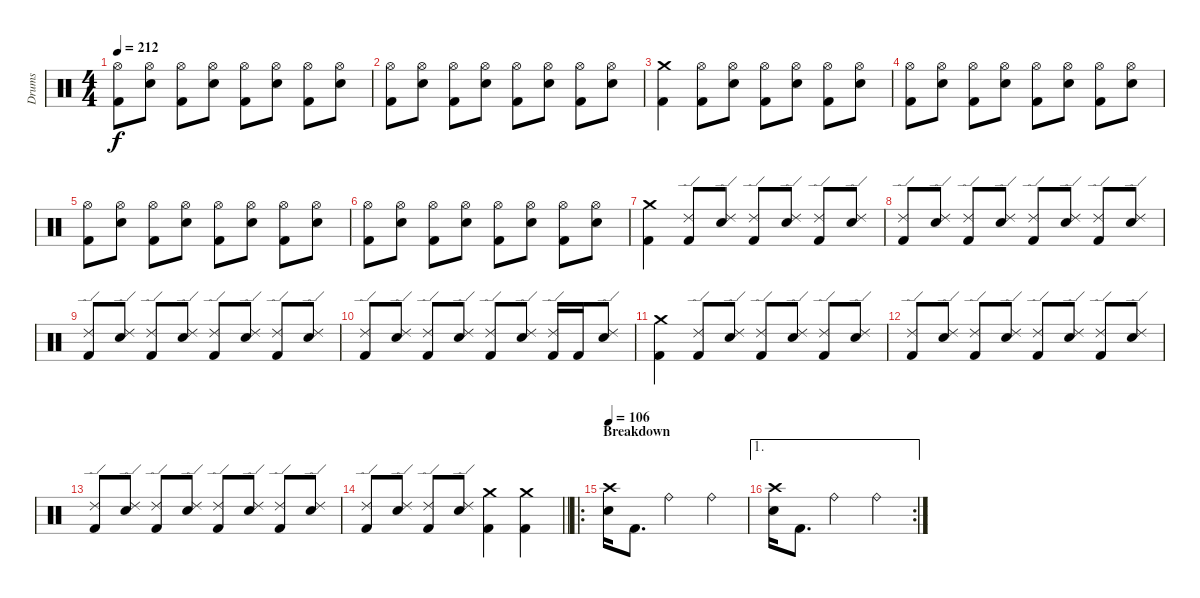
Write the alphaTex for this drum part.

\track ("Drums" "Drums") {instrument percussion}
\staff {score}
\articulation defaults
\ts (4 4)
\tempo 212
\clef neutral
\ks c
("Hi-Hat (open)" "Kick (hit) 2").8{dy f} ("Hi-Hat (open)" "Electric Snare (hit)").8 ("Hi-Hat (open)" "Kick (hit) 2").8 ("Hi-Hat (open)" "Electric Snare (hit)").8 ("Hi-Hat (open)" "Kick (hit) 2").8 ("Hi-Hat (open)" "Electric Snare (hit)").8 ("Hi-Hat (open)" "Kick (hit) 2").8 ("Hi-Hat (open)" "Electric Snare (hit)").8 |
("Hi-Hat (open)" "Kick (hit) 2").8 ("Hi-Hat (open)" "Electric Snare (hit)").8 ("Hi-Hat (open)" "Kick (hit) 2").8 ("Hi-Hat (open)" "Electric Snare (hit)").8 ("Hi-Hat (open)" "Kick (hit) 2").8 ("Hi-Hat (open)" "Electric Snare (hit)").8 ("Hi-Hat (open)" "Kick (hit) 2").8 ("Hi-Hat (open)" "Electric Snare (hit)").8 |
("Crash medium (hit)" "Kick (hit) 2").4 ("Hi-Hat (open)" "Kick (hit) 2").8 ("Hi-Hat (open)" "Electric Snare (hit)").8 ("Hi-Hat (open)" "Kick (hit) 2").8 ("Hi-Hat (open)" "Electric Snare (hit)").8 ("Hi-Hat (open)" "Kick (hit) 2").8 ("Hi-Hat (open)" "Electric Snare (hit)").8 |
("Hi-Hat (open)" "Kick (hit) 2").8 ("Hi-Hat (open)" "Electric Snare (hit)").8 ("Hi-Hat (open)" "Kick (hit) 2").8 ("Hi-Hat (open)" "Electric Snare (hit)").8 ("Hi-Hat (open)" "Kick (hit) 2").8 ("Hi-Hat (open)" "Electric Snare (hit)").8 ("Hi-Hat (open)" "Kick (hit) 2").8 ("Hi-Hat (open)" "Electric Snare (hit)").8 |
("Hi-Hat (open)" "Kick (hit) 2").8 ("Hi-Hat (open)" "Electric Snare (hit)").8 ("Hi-Hat (open)" "Kick (hit) 2").8 ("Hi-Hat (open)" "Electric Snare (hit)").8 ("Hi-Hat (open)" "Kick (hit) 2").8 ("Hi-Hat (open)" "Electric Snare (hit)").8 ("Hi-Hat (open)" "Kick (hit) 2").8 ("Hi-Hat (open)" "Electric Snare (hit)").8 |
("Hi-Hat (open)" "Kick (hit) 2").8 ("Hi-Hat (open)" "Electric Snare (hit)").8 ("Hi-Hat (open)" "Kick (hit) 2").8 ("Hi-Hat (open)" "Electric Snare (hit)").8 ("Hi-Hat (open)" "Kick (hit) 2").8 ("Hi-Hat (open)" "Electric Snare (hit)").8 ("Hi-Hat (open)" "Kick (hit) 2").8 ("Hi-Hat (open)" "Electric Snare (hit)").8 |
("Crash medium (hit)" "Kick (hit) 2").4 ("Ride (edge) 2" "Kick (hit) 2").8 ("Ride (edge) 2" "Electric Snare (hit)").8 ("Ride (edge) 2" "Kick (hit) 2").8 ("Ride (edge) 2" "Electric Snare (hit)").8 ("Ride (edge) 2" "Kick (hit) 2").8 ("Ride (edge) 2" "Electric Snare (hit)").8 |
("Ride (edge) 2" "Kick (hit) 2").8 ("Ride (edge) 2" "Electric Snare (hit)").8 ("Ride (edge) 2" "Kick (hit) 2").8 ("Ride (edge) 2" "Electric Snare (hit)").8 ("Ride (edge) 2" "Kick (hit) 2").8 ("Ride (edge) 2" "Electric Snare (hit)").8 ("Ride (edge) 2" "Kick (hit) 2").8 ("Ride (edge) 2" "Electric Snare (hit)").8 |
("Ride (edge) 2" "Kick (hit) 2").8 ("Ride (edge) 2" "Electric Snare (hit)").8 ("Ride (edge) 2" "Kick (hit) 2").8 ("Ride (edge) 2" "Electric Snare (hit)").8 ("Ride (edge) 2" "Kick (hit) 2").8 ("Ride (edge) 2" "Electric Snare (hit)").8 ("Ride (edge) 2" "Kick (hit) 2").8 ("Ride (edge) 2" "Electric Snare (hit)").8 |
("Ride (edge) 2" "Kick (hit) 2").8 ("Ride (edge) 2" "Electric Snare (hit)").8 ("Ride (edge) 2" "Kick (hit) 2").8 ("Ride (edge) 2" "Electric Snare (hit)").8 ("Ride (edge) 2" "Kick (hit) 2").8 ("Ride (edge) 2" "Electric Snare (hit)").8 ("Ride (edge) 2" "Kick (hit) 2").16 "Kick (hit) 2".16 ("Ride (edge) 2" "Electric Snare (hit)").8 |
("Crash medium (hit)" "Kick (hit) 2").4 ("Ride (edge) 2" "Kick (hit) 2").8 ("Ride (edge) 2" "Electric Snare (hit)").8 ("Ride (edge) 2" "Kick (hit) 2").8 ("Ride (edge) 2" "Electric Snare (hit)").8 ("Ride (edge) 2" "Kick (hit) 2").8 ("Ride (edge) 2" "Electric Snare (hit)").8 |
("Ride (edge) 2" "Kick (hit) 2").8 ("Ride (edge) 2" "Electric Snare (hit)").8 ("Ride (edge) 2" "Kick (hit) 2").8 ("Ride (edge) 2" "Electric Snare (hit)").8 ("Ride (edge) 2" "Kick (hit) 2").8 ("Ride (edge) 2" "Electric Snare (hit)").8 ("Ride (edge) 2" "Kick (hit) 2").8 ("Ride (edge) 2" "Electric Snare (hit)").8 |
("Ride (edge) 2" "Kick (hit) 2").8 ("Ride (edge) 2" "Electric Snare (hit)").8 ("Ride (edge) 2" "Kick (hit) 2").8 ("Ride (edge) 2" "Electric Snare (hit)").8 ("Ride (edge) 2" "Kick (hit) 2").8 ("Ride (edge) 2" "Electric Snare (hit)").8 ("Ride (edge) 2" "Kick (hit) 2").8 ("Ride (edge) 2" "Electric Snare (hit)").8 |
\barLineRight lightlight
("Ride (edge) 2" "Kick (hit) 2").8 ("Ride (edge) 2" "Electric Snare (hit)").8 ("Ride (edge) 2" "Kick (hit) 2").8 ("Ride (edge) 2" "Electric Snare (hit)").8 ("Crash medium (hit)" "Kick (hit) 2").4 ("Crash medium (hit)" "Kick (hit) 2").4 |
\ro
\section ("" "Breakdown")
\tempo 106
("Crash high (hit)" "Electric Snare (hit)").16 "Kick (hit) 2".8{d} "Ride (bell)".2 "Ride (bell)".4 |
\ae 1
\rc 2
("Crash high (hit)" "Electric Snare (hit)").16 "Kick (hit) 2".8{d} "Ride (bell)".2 "Ride (bell)".4
